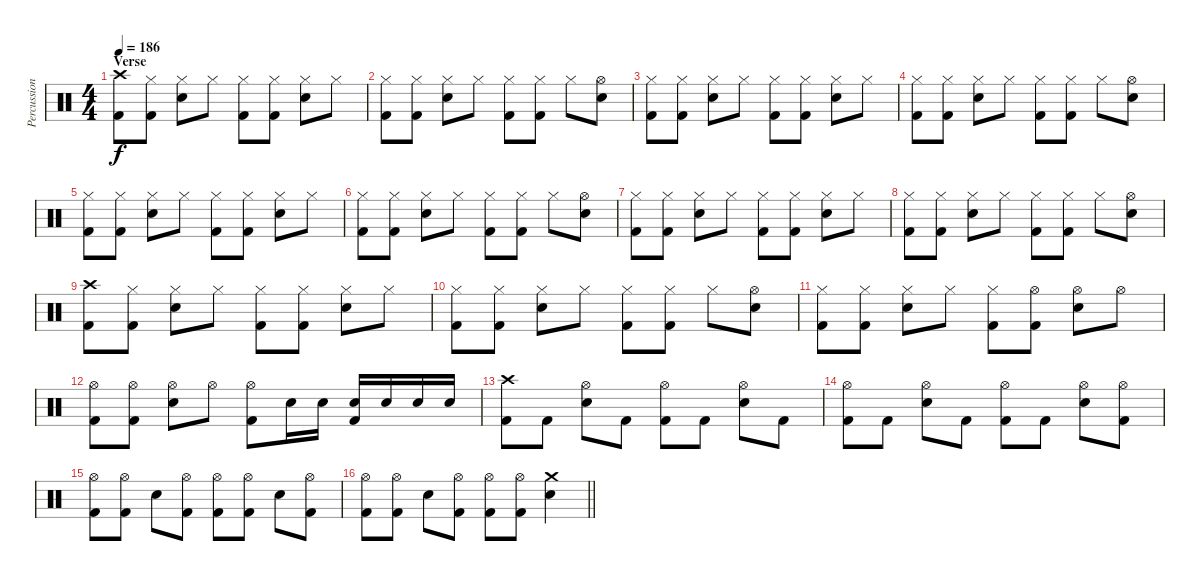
\track ("Percussion" "Percussion") {instrument percussion}
\staff {score}
\articulation defaults
\ts (4 4)
\section ("" "Verse")
\tempo 186
\clef neutral
\ks c
("Crash high (hit)" "Kick (hit) 2").8{dy f} ("Hi-Hat (closed)" "Kick (hit) 2").8 ("Hi-Hat (closed)" "Electric Snare (hit)").8 "Hi-Hat (closed)".8 ("Hi-Hat (closed)" "Kick (hit) 2").8 ("Hi-Hat (closed)" "Kick (hit) 2").8 ("Hi-Hat (closed)" "Electric Snare (hit)").8 "Hi-Hat (closed)".8 |
("Hi-Hat (closed)" "Kick (hit) 2").8 ("Hi-Hat (closed)" "Kick (hit) 2").8 ("Hi-Hat (closed)" "Electric Snare (hit)").8 "Hi-Hat (closed)".8 ("Hi-Hat (closed)" "Kick (hit) 2").8 ("Hi-Hat (closed)" "Kick (hit) 2").8 "Hi-Hat (closed)".8 ("Hi-Hat (open)" "Electric Snare (hit)").8 |
("Hi-Hat (closed)" "Kick (hit) 2").8 ("Hi-Hat (closed)" "Kick (hit) 2").8 ("Hi-Hat (closed)" "Electric Snare (hit)").8 "Hi-Hat (closed)".8 ("Hi-Hat (closed)" "Kick (hit) 2").8 ("Hi-Hat (closed)" "Kick (hit) 2").8 ("Hi-Hat (closed)" "Electric Snare (hit)").8 "Hi-Hat (closed)".8 |
("Hi-Hat (closed)" "Kick (hit) 2").8 ("Hi-Hat (closed)" "Kick (hit) 2").8 ("Hi-Hat (closed)" "Electric Snare (hit)").8 "Hi-Hat (closed)".8 ("Hi-Hat (closed)" "Kick (hit) 2").8 ("Hi-Hat (closed)" "Kick (hit) 2").8 "Hi-Hat (closed)".8 ("Hi-Hat (open)" "Electric Snare (hit)").8 |
("Hi-Hat (closed)" "Kick (hit) 2").8 ("Hi-Hat (closed)" "Kick (hit) 2").8 ("Hi-Hat (closed)" "Electric Snare (hit)").8 "Hi-Hat (closed)".8 ("Hi-Hat (closed)" "Kick (hit) 2").8 ("Hi-Hat (closed)" "Kick (hit) 2").8 ("Hi-Hat (closed)" "Electric Snare (hit)").8 "Hi-Hat (closed)".8 |
("Hi-Hat (closed)" "Kick (hit) 2").8 ("Hi-Hat (closed)" "Kick (hit) 2").8 ("Hi-Hat (closed)" "Electric Snare (hit)").8 "Hi-Hat (closed)".8 ("Hi-Hat (closed)" "Kick (hit) 2").8 ("Hi-Hat (closed)" "Kick (hit) 2").8 "Hi-Hat (closed)".8 ("Hi-Hat (open)" "Electric Snare (hit)").8 |
("Hi-Hat (closed)" "Kick (hit) 2").8 ("Hi-Hat (closed)" "Kick (hit) 2").8 ("Hi-Hat (closed)" "Electric Snare (hit)").8 "Hi-Hat (closed)".8 ("Hi-Hat (closed)" "Kick (hit) 2").8 ("Hi-Hat (closed)" "Kick (hit) 2").8 ("Hi-Hat (closed)" "Electric Snare (hit)").8 "Hi-Hat (closed)".8 |
("Hi-Hat (closed)" "Kick (hit) 2").8 ("Hi-Hat (closed)" "Kick (hit) 2").8 ("Hi-Hat (closed)" "Electric Snare (hit)").8 "Hi-Hat (closed)".8 ("Hi-Hat (closed)" "Kick (hit) 2").8 ("Hi-Hat (closed)" "Kick (hit) 2").8 "Hi-Hat (closed)".8 ("Hi-Hat (open)" "Electric Snare (hit)").8 |
("Crash high (hit)" "Kick (hit) 2").8 ("Hi-Hat (closed)" "Kick (hit) 2").8 ("Hi-Hat (closed)" "Electric Snare (hit)").8 "Hi-Hat (closed)".8 ("Hi-Hat (closed)" "Kick (hit) 2").8 ("Hi-Hat (closed)" "Kick (hit) 2").8 ("Hi-Hat (closed)" "Electric Snare (hit)").8 "Hi-Hat (closed)".8 |
("Hi-Hat (closed)" "Kick (hit) 2").8 ("Hi-Hat (closed)" "Kick (hit) 2").8 ("Hi-Hat (closed)" "Electric Snare (hit)").8 "Hi-Hat (closed)".8 ("Hi-Hat (closed)" "Kick (hit) 2").8 ("Hi-Hat (closed)" "Kick (hit) 2").8 "Hi-Hat (closed)".8 ("Hi-Hat (open)" "Electric Snare (hit)").8 |
("Hi-Hat (closed)" "Kick (hit) 2").8 ("Hi-Hat (closed)" "Kick (hit) 2").8 ("Hi-Hat (closed)" "Electric Snare (hit)").8 "Hi-Hat (closed)".8 ("Hi-Hat (closed)" "Kick (hit) 2").8 ("Hi-Hat (open)" "Kick (hit) 2").8 ("Hi-Hat (open)" "Electric Snare (hit)").8 "Hi-Hat (open)".8 |
("Hi-Hat (open)" "Kick (hit) 2").8 ("Hi-Hat (open)" "Kick (hit) 2").8 ("Hi-Hat (open)" "Electric Snare (hit)").8 "Hi-Hat (open)".8 ("Hi-Hat (open)" "Kick (hit) 2").8 "Electric Snare (hit)".16 "Electric Snare (hit)".16 ("Electric Snare (hit)" "Kick (hit) 2").16 "Electric Snare (hit)".16 "Electric Snare (hit)".16 "Electric Snare (hit)".16 |
("Crash high (hit)" "Kick (hit) 2").8 "Kick (hit) 2".8 ("Hi-Hat (open)" "Electric Snare (hit)").8 "Kick (hit) 2".8 ("Hi-Hat (open)" "Kick (hit) 2").8 "Kick (hit) 2".8 ("Hi-Hat (open)" "Electric Snare (hit)").8 "Kick (hit) 2".8 |
("Hi-Hat (open)" "Kick (hit) 2").8 "Kick (hit) 2".8 ("Hi-Hat (open)" "Electric Snare (hit)").8 "Kick (hit) 2".8 ("Hi-Hat (open)" "Kick (hit) 2").8 "Kick (hit) 2".8 ("Hi-Hat (open)" "Electric Snare (hit)").8 ("Hi-Hat (open)" "Kick (hit) 2").8 |
("Hi-Hat (open)" "Kick (hit) 2").8 ("Hi-Hat (open)" "Kick (hit) 2").8 "Electric Snare (hit)".8 ("Hi-Hat (open)" "Kick (hit) 2").8 ("Hi-Hat (open)" "Kick (hit) 2").8 ("Hi-Hat (open)" "Kick (hit) 2").8 "Electric Snare (hit)".8 ("Hi-Hat (open)" "Kick (hit) 2").8 |
\barLineRight lightlight
("Hi-Hat (open)" "Kick (hit) 2").8 ("Hi-Hat (open)" "Kick (hit) 2").8 "Electric Snare (hit)".8 ("Hi-Hat (open)" "Kick (hit) 2").8 ("Hi-Hat (open)" "Kick (hit) 2").8 ("Hi-Hat (open)" "Kick (hit) 2").8 ("Crash medium (hit)" "Electric Snare (hit)").4
